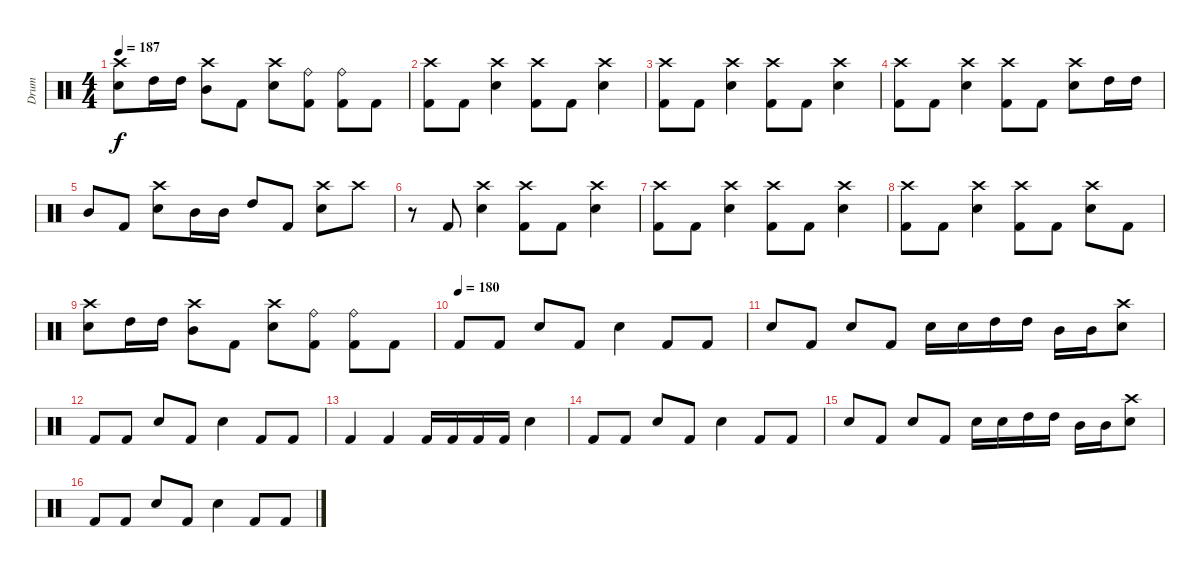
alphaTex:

\track ("Drum" "Drum") {instrument percussion}
\staff {score}
\articulation defaults
\ts (4 4)
\tempo 187
\clef neutral
\ks c
("Crash high (hit)" "Electric Snare (hit)").8{dy f} "High Tom (hit)".16 "High Tom (hit)".16 ("Crash high (hit)" "Mid Tom (hit)").8 "Kick (hit) 2".8 ("Crash high (hit)" "Electric Snare (hit)").8 ("Ride (bell)" "Kick (hit) 2").8 ("Ride (bell)" "Kick (hit) 2").8 "Kick (hit) 2".8 |
("Crash high (hit)" "Kick (hit) 2").8 "Kick (hit) 2".8 ("Crash high (hit)" "Electric Snare (hit)").4 ("Crash high (hit)" "Kick (hit) 2").8 "Kick (hit) 2".8 ("Crash high (hit)" "Electric Snare (hit)").4 |
("Crash high (hit)" "Kick (hit) 2").8 "Kick (hit) 2".8 ("Crash high (hit)" "Electric Snare (hit)").4 ("Crash high (hit)" "Kick (hit) 2").8 "Kick (hit) 2".8 ("Crash high (hit)" "Electric Snare (hit)").4 |
("Crash high (hit)" "Kick (hit) 2").8 "Kick (hit) 2".8 ("Crash high (hit)" "Electric Snare (hit)").4 ("Crash high (hit)" "Kick (hit) 2").8 "Kick (hit) 2".8 ("Crash high (hit)" "Electric Snare (hit)").8 "High Tom (hit)".16 "High Tom (hit)".16 |
"Mid Tom (hit)".8 "Kick (hit) 2".8 ("Crash high (hit)" "Electric Snare (hit)").8 "Mid Tom (hit)".16 "Mid Tom (hit)".16 "High Tom (hit)".8 "Kick (hit) 2".8 ("Crash high (hit)" "Electric Snare (hit)").8 "Crash high (hit)".8 |
r.8 "Kick (hit) 2".8 ("Crash high (hit)" "Electric Snare (hit)").4 ("Crash high (hit)" "Kick (hit) 2").8 "Kick (hit) 2".8 ("Crash high (hit)" "Electric Snare (hit)").4 |
("Crash high (hit)" "Kick (hit) 2").8 "Kick (hit) 2".8 ("Crash high (hit)" "Electric Snare (hit)").4 ("Crash high (hit)" "Kick (hit) 2").8 "Kick (hit) 2".8 ("Crash high (hit)" "Electric Snare (hit)").4 |
("Crash high (hit)" "Kick (hit) 2").8 "Kick (hit) 2".8 ("Crash high (hit)" "Electric Snare (hit)").4 ("Crash high (hit)" "Kick (hit) 2").8 "Kick (hit) 2".8 ("Crash high (hit)" "Electric Snare (hit)").8 "Kick (hit) 2".8 |
("Crash high (hit)" "Electric Snare (hit)").8 "High Tom (hit)".16 "High Tom (hit)".16 ("Crash high (hit)" "Mid Tom (hit)").8 "Kick (hit) 2".8 ("Crash high (hit)" "Electric Snare (hit)").8 ("Ride (bell)" "Kick (hit) 2").8 ("Ride (bell)" "Kick (hit) 2").8 "Kick (hit) 2".8 |
\tempo (180)
"Kick (hit) 2".8 "Kick (hit) 2".8 "Electric Snare (hit)".8 "Kick (hit) 2".8 "Electric Snare (hit)".4 "Kick (hit) 2".8 "Kick (hit) 2".8 |
"Electric Snare (hit)".8 "Kick (hit) 2".8 "Electric Snare (hit)".8 "Kick (hit) 2".8 "Electric Snare (hit)".16 "Electric Snare (hit)".16 "High Tom (hit)".16 "High Tom (hit)".16 "Mid Tom (hit)".16 "Mid Tom (hit)".16 ("Crash high (hit)" "Electric Snare (hit)").8 |
"Kick (hit) 2".8 "Kick (hit) 2".8 "Electric Snare (hit)".8 "Kick (hit) 2".8 "Electric Snare (hit)".4 "Kick (hit) 2".8 "Kick (hit) 2".8 |
"Kick (hit) 2".4 "Kick (hit) 2".4 "Kick (hit) 2".16 "Kick (hit) 2".16 "Kick (hit) 2".16 "Kick (hit) 2".16 "Electric Snare (hit)".4 |
"Kick (hit) 2".8 "Kick (hit) 2".8 "Electric Snare (hit)".8 "Kick (hit) 2".8 "Electric Snare (hit)".4 "Kick (hit) 2".8 "Kick (hit) 2".8 |
"Electric Snare (hit)".8 "Kick (hit) 2".8 "Electric Snare (hit)".8 "Kick (hit) 2".8 "Electric Snare (hit)".16 "Electric Snare (hit)".16 "High Tom (hit)".16 "High Tom (hit)".16 "Mid Tom (hit)".16 "Mid Tom (hit)".16 ("Crash high (hit)" "Electric Snare (hit)").8 |
"Kick (hit) 2".8 "Kick (hit) 2".8 "Electric Snare (hit)".8 "Kick (hit) 2".8 "Electric Snare (hit)".4 "Kick (hit) 2".8 "Kick (hit) 2".8
